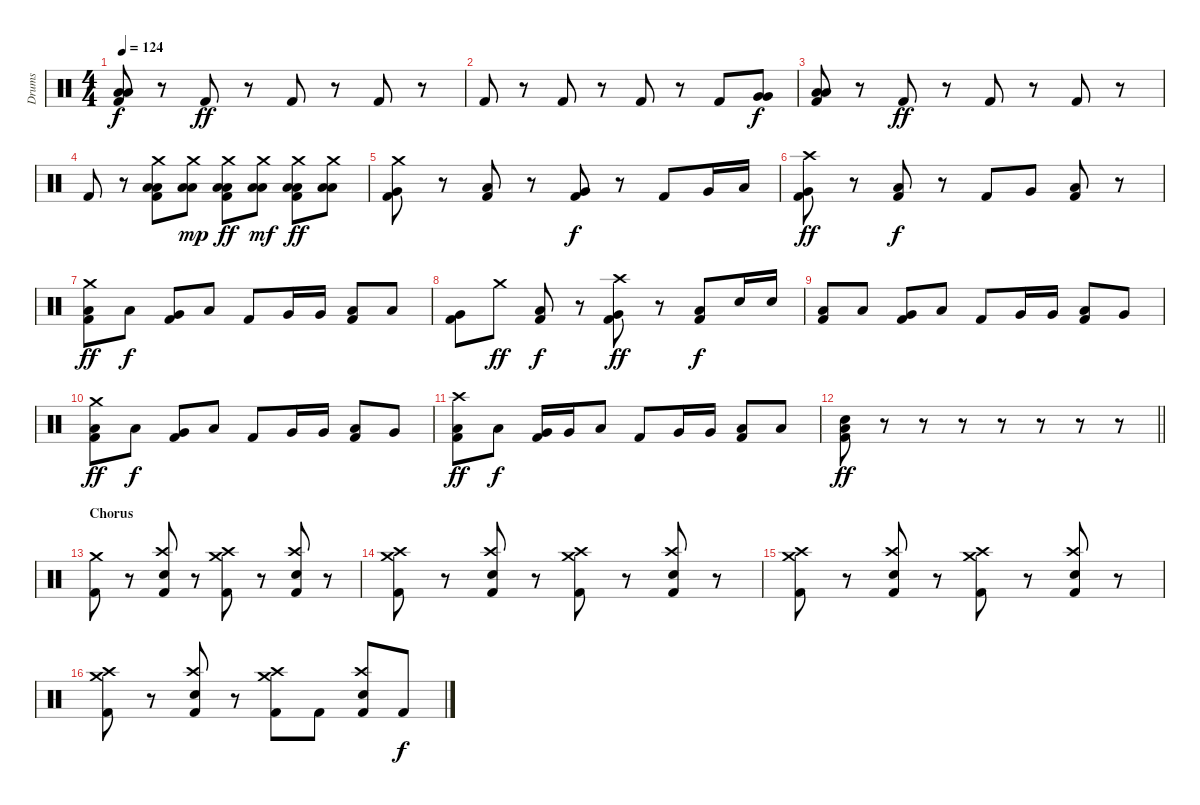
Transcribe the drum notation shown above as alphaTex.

\track ("Drums" "Drums") {instrument percussion}
\staff {score}
\articulation defaults
\ts (4 4)
\tempo 124
\clef neutral
\ks c
("Low Floor Tom (hit)" "Low Floor Tom (hit)" "Kick (hit) 2").8{dy f} r.8 "Kick (hit) 2".8{dy ff} r.8 "Kick (hit) 2".8 r.8 "Kick (hit) 2".8 r.8 |
"Kick (hit) 2".8 r.8 "Kick (hit) 2".8 r.8 "Kick (hit) 2".8 r.8 "Kick (hit) 2".8 ("Very Low Tom (hit)" "Very Low Tom (hit)").8{dy f} |
("Low Floor Tom (hit)" "Low Floor Tom (hit)" "Kick (hit) 2").8 r.8 "Kick (hit) 2".8{dy ff} r.8 "Kick (hit) 2".8 r.8 "Kick (hit) 2".8 r.8 |
"Kick (hit) 2".8 r.8 ("Crash medium (hit)" "Low Floor Tom (hit)" "Low Floor Tom (hit)" "Kick (hit) 2").8 ("Crash medium (hit)" "Low Floor Tom (hit)" "Low Floor Tom (hit)").8{dy mp} ("Crash medium (hit)" "Low Floor Tom (hit)" "Low Floor Tom (hit)" "Kick (hit) 2").8{dy ff} ("Crash medium (hit)" "Low Floor Tom (hit)" "Low Floor Tom (hit)").8{dy mf} ("Crash medium (hit)" "Low Floor Tom (hit)" "Low Floor Tom (hit)" "Kick (hit) 2").8{dy ff} ("Crash medium (hit)" "Low Floor Tom (hit)" "Low Floor Tom (hit)").8 |
("Crash medium (hit)" "Very Low Tom (hit)" "Kick (hit) 2").8 r.8 ("Low Floor Tom (hit)" "Kick (hit) 2").8 r.8 ("Very Low Tom (hit)" "Kick (hit) 2").8{dy f} r.8 "Kick (hit) 2".8 "Very Low Tom (hit)".16 "Low Floor Tom (hit)".16 |
("Crash high (hit)" "Very Low Tom (hit)" "Kick (hit) 2").8{dy ff} r.8 ("Low Floor Tom (hit)" "Kick (hit) 2").8{dy f} r.8 "Kick (hit) 2".8 "Very Low Tom (hit)".8 ("Low Floor Tom (hit)" "Kick (hit) 2").8 r.8 |
("Crash medium (hit)" "Low Floor Tom (hit)" "Kick (hit) 2").8{dy ff} "Low Floor Tom (hit)".8{dy f} ("Very Low Tom (hit)" "Kick (hit) 2").8 "Low Floor Tom (hit)".8 "Kick (hit) 2".8 "Very Low Tom (hit)".16 "Very Low Tom (hit)".16 ("Low Floor Tom (hit)" "Kick (hit) 2").8 "Low Floor Tom (hit)".8 |
("Very Low Tom (hit)" "Kick (hit) 2").8 "Crash medium (hit)".8{dy ff} ("Low Floor Tom (hit)" "Kick (hit) 2").8{dy f} r.8 ("Crash high (hit)" "Very Low Tom (hit)" "Kick (hit) 2").8{dy ff} r.8 ("Low Floor Tom (hit)" "Kick (hit) 2").8{dy f} "Electric Snare (hit)".16 "Electric Snare (hit)".16 |
("Low Floor Tom (hit)" "Kick (hit) 2").8 "Low Floor Tom (hit)".8 ("Very Low Tom (hit)" "Kick (hit) 2").8 "Low Floor Tom (hit)".8 "Kick (hit) 2".8 "Very Low Tom (hit)".16 "Very Low Tom (hit)".16 ("Low Floor Tom (hit)" "Kick (hit) 2").8 "Very Low Tom (hit)".8 |
("Crash medium (hit)" "Low Floor Tom (hit)" "Kick (hit) 2").8{dy ff} "Low Floor Tom (hit)".8{dy f} ("Very Low Tom (hit)" "Kick (hit) 2").8 "Low Floor Tom (hit)".8 "Kick (hit) 2".8 "Very Low Tom (hit)".16 "Very Low Tom (hit)".16 ("Low Floor Tom (hit)" "Kick (hit) 2").8 "Very Low Tom (hit)".8 |
("Crash high (hit)" "Low Floor Tom (hit)" "Kick (hit) 2").8{dy ff} "Low Floor Tom (hit)".8{dy f} ("Very Low Tom (hit)" "Kick (hit) 2").16 "Very Low Tom (hit)".16 "Low Floor Tom (hit)".8 "Kick (hit) 2".8 "Very Low Tom (hit)".16 "Very Low Tom (hit)".16 ("Low Floor Tom (hit)" "Kick (hit) 2").8 "Low Floor Tom (hit)".8 |
\barLineRight lightlight
("Electric Snare (hit)" "Low Floor Tom (hit)" "Kick (hit) 2").8{dy ff} r.8 r.8 r.8 r.8 r.8 r.8 r.8 |
\section ("" "Chorus")
("Crash medium (hit)" "Kick (hit) 2").8 r.8 ("Crash high (hit)" "Electric Snare (hit)" "Kick (hit) 2").8 r.8 ("Crash medium (hit)" "Crash high (hit)" "Kick (hit) 2").8 r.8 ("Crash high (hit)" "Electric Snare (hit)" "Kick (hit) 2").8 r.8 |
("Crash medium (hit)" "Crash high (hit)" "Kick (hit) 2").8 r.8 ("Crash high (hit)" "Electric Snare (hit)" "Kick (hit) 2").8 r.8 ("Crash medium (hit)" "Crash high (hit)" "Kick (hit) 2").8 r.8 ("Crash high (hit)" "Electric Snare (hit)" "Kick (hit) 2").8 r.8 |
("Crash medium (hit)" "Crash high (hit)" "Kick (hit) 2").8 r.8 ("Crash high (hit)" "Electric Snare (hit)" "Kick (hit) 2").8 r.8 ("Crash medium (hit)" "Crash high (hit)" "Kick (hit) 2").8 r.8 ("Crash high (hit)" "Electric Snare (hit)" "Kick (hit) 2").8 r.8 |
("Crash medium (hit)" "Crash high (hit)" "Kick (hit) 2").8 r.8 ("Crash high (hit)" "Electric Snare (hit)" "Kick (hit) 2").8 r.8 ("Crash medium (hit)" "Crash high (hit)" "Kick (hit) 2").8 "Kick (hit) 2".8 ("Crash high (hit)" "Electric Snare (hit)" "Kick (hit) 2").8 "Kick (hit) 2".8{dy f}
